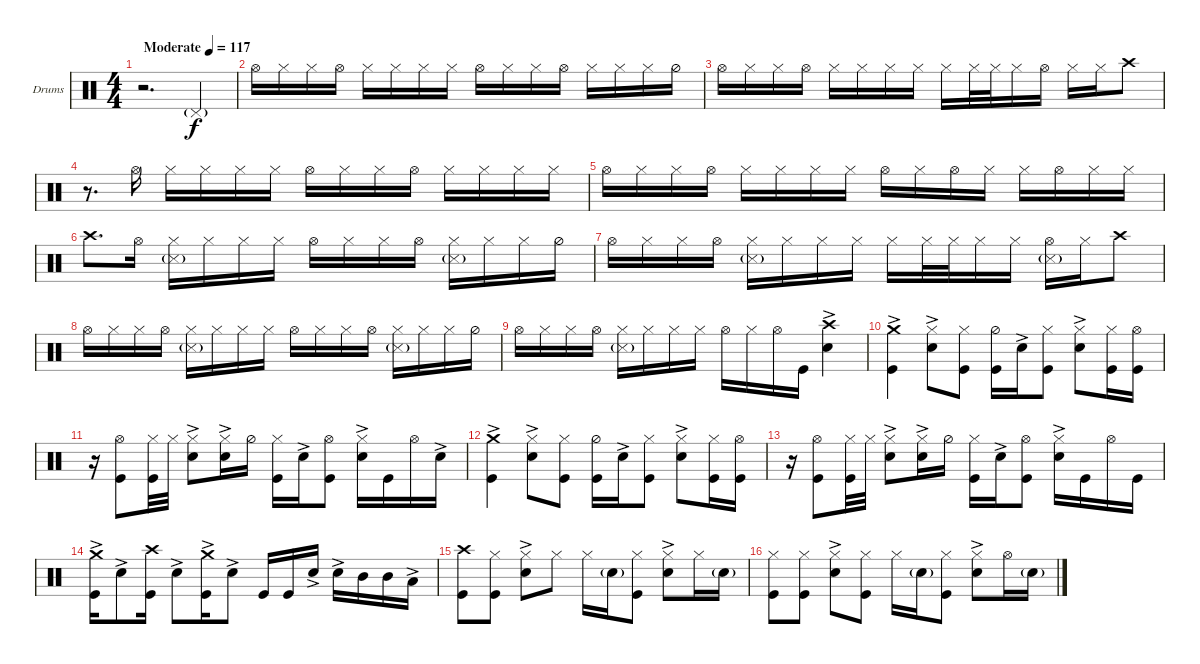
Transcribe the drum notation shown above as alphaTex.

\bracketExtendMode groupsimilarinstruments
\firstSystemTrackNameOrientation horizontal
\otherSystemsTrackNameOrientation horizontal
\track ("Drumkit" "Drums") {instrument percussion}
\staff {score}
\articulation defaults
\ts (4 4)
\beaming (8 2 2 2 2)
\tempo (117 "Moderate")
\clef neutral
\ks c
r.2{d dy f} "Pedal Hi-Hat (hit)"{g}.4 |
"Hi-Hat (open)".16 "Hi-Hat (closed)".16 "Hi-Hat (closed)".16 "Hi-Hat (open)".16 "Hi-Hat (closed)".16 "Hi-Hat (closed)".16 "Hi-Hat (closed)".16 "Hi-Hat (closed)".16 "Hi-Hat (open)".16 "Hi-Hat (closed)".16 "Hi-Hat (closed)".16 "Hi-Hat (open)".16 "Hi-Hat (closed)".16 "Hi-Hat (closed)".16 "Hi-Hat (closed)".16 "Hi-Hat (half)".16 |
"Hi-Hat (open)".16 "Hi-Hat (closed)".16 "Hi-Hat (closed)".16 "Hi-Hat (open)".16 "Hi-Hat (closed)".16 "Hi-Hat (closed)".16 "Hi-Hat (closed)".16 "Hi-Hat (closed)".16 "Hi-Hat (closed)".16 "Hi-Hat (closed)".32 "Hi-Hat (closed)".32 "Hi-Hat (closed)".16 "Hi-Hat (open)".16 "Hi-Hat (closed)".16 "Hi-Hat (closed)".16 "Crash high (hit)".8 |
r.8{d} "Hi-Hat (open)".16 "Hi-Hat (closed)".16 "Hi-Hat (closed)".16 "Hi-Hat (closed)".16 "Hi-Hat (closed)".16 "Hi-Hat (open)".16 "Hi-Hat (closed)".16 "Hi-Hat (closed)".16 "Hi-Hat (open)".16 "Hi-Hat (closed)".16 "Hi-Hat (closed)".16 "Hi-Hat (closed)".16 "Hi-Hat (closed)".16 |
"Hi-Hat (open)".16 "Hi-Hat (closed)".16 "Hi-Hat (closed)".16 "Hi-Hat (open)".16 "Hi-Hat (closed)".16 "Hi-Hat (closed)".16 "Hi-Hat (closed)".16 "Hi-Hat (closed)".16 "Hi-Hat (open)".16 "Hi-Hat (closed)".16 "Hi-Hat (open)".16 "Hi-Hat (closed)".16 "Hi-Hat (closed)".16 "Hi-Hat (open)".16 "Hi-Hat (closed)".16 "Hi-Hat (closed)".16 |
"Crash high (hit)".8{d} "Hi-Hat (open)".16 ("Hi-Hat (closed)" "Snare (side stick) 3"{g}).16 "Hi-Hat (closed)".16 "Hi-Hat (closed)".16 "Hi-Hat (closed)".16 "Hi-Hat (open)".16 "Hi-Hat (closed)".16 "Hi-Hat (closed)".16 "Hi-Hat (open)".16 ("Hi-Hat (closed)" "Snare (side stick) 3"{g}).16 "Hi-Hat (closed)".16 "Hi-Hat (closed)".16 "Hi-Hat (half)".16 |
"Hi-Hat (open)".16 "Hi-Hat (closed)".16 "Hi-Hat (closed)".16 "Hi-Hat (open)".16 ("Hi-Hat (closed)" "Snare (side stick) 3"{g}).16 "Hi-Hat (closed)".16 "Hi-Hat (closed)".16 "Hi-Hat (closed)".16 "Hi-Hat (closed)".16 "Hi-Hat (closed)".32 "Hi-Hat (closed)".32 "Hi-Hat (closed)".16 "Hi-Hat (closed)".16 ("Hi-Hat (open)" "Snare (side stick) 3"{g}).16 "Hi-Hat (closed)".16 "Crash high (hit)".8 |
"Hi-Hat (open)".16 "Hi-Hat (closed)".16 "Hi-Hat (closed)".16 "Hi-Hat (open)".16 ("Hi-Hat (closed)" "Snare (side stick) 3"{g}).16 "Hi-Hat (closed)".16 "Hi-Hat (closed)".16 "Hi-Hat (closed)".16 "Hi-Hat (open)".16 "Hi-Hat (closed)".16 "Hi-Hat (closed)".16 "Hi-Hat (open)".16 ("Hi-Hat (closed)" "Snare (side stick) 3"{g}).16 "Hi-Hat (closed)".16 "Hi-Hat (closed)".16 "Hi-Hat (half)".16 |
"Hi-Hat (open)".16 "Hi-Hat (closed)".16 "Hi-Hat (closed)".16 "Hi-Hat (open)".16 ("Hi-Hat (closed)" "Snare (side stick) 3"{g}).16 "Hi-Hat (closed)".16 "Hi-Hat (closed)".16 "Hi-Hat (closed)".16 "Hi-Hat (open)".16 "Hi-Hat (closed)".16 "Hi-Hat (open)".16 "Kick (hit)".16 ("Snare (hit) 2"{ac} "Crash high (hit)").4 |
("Kick (hit)" "Crash medium (hit)"{ac}).4 ("Hi-Hat (closed)" "Snare (hit) 2"{ac}).8 ("Hi-Hat (closed)" "Kick (hit)").8 ("Kick (hit)" "Hi-Hat (half)").16 "Snare (hit) 2"{ac}.16 ("Kick (hit)" "Hi-Hat (closed)").8 ("Snare (hit) 2"{ac} "Hi-Hat (closed)").8 ("Kick (hit)" "Hi-Hat (closed)").16 ("Hi-Hat (open)" "Kick (hit)").16 |
r.16 ("Hi-Hat (open)" "Kick (hit)").8 ("Kick (hit)" "Hi-Hat (closed)").32 "Hi-Hat (closed)".32 ("Snare (hit) 2"{ac} "Hi-Hat (closed)").8 ("Snare (hit) 2"{ac} "Hi-Hat (closed)").16 "Hi-Hat (half)".16 ("Kick (hit)" "Hi-Hat (closed)").16 "Snare (hit) 2"{ac}.16 ("Kick (hit)" "Hi-Hat (open)").8 ("Snare (hit) 2"{ac} "Hi-Hat (closed)").16 "Kick (hit)".16 "Hi-Hat (open)".16 "Snare (hit) 2"{ac}.16 |
("Kick (hit)" "Crash medium (hit)"{ac}).4 ("Hi-Hat (closed)" "Snare (hit) 2"{ac}).8 ("Hi-Hat (closed)" "Kick (hit)").8 ("Kick (hit)" "Hi-Hat (half)").16 "Snare (hit) 2"{ac}.16 ("Kick (hit)" "Hi-Hat (closed)").8 ("Snare (hit) 2"{ac} "Hi-Hat (closed)").8 ("Kick (hit)" "Hi-Hat (closed)").16 ("Hi-Hat (open)" "Kick (hit)").16 |
r.16 ("Hi-Hat (open)" "Kick (hit)").8 ("Kick (hit)" "Hi-Hat (closed)").32 "Hi-Hat (closed)".32 ("Snare (hit) 2"{ac} "Hi-Hat (closed)").8 ("Snare (hit) 2"{ac} "Hi-Hat (closed)").16 "Hi-Hat (half)".16 ("Kick (hit)" "Hi-Hat (closed)").16 "Snare (hit) 2"{ac}.16 ("Kick (hit)" "Hi-Hat (open)").8 ("Snare (hit) 2"{ac} "Hi-Hat (closed)").16 "Kick (hit)".16 "Hi-Hat (open)".16 "Kick (hit)".16 |
("Kick (hit)" "Crash medium (hit)"{ac}).16 "Snare (hit) 2"{ac}.8 ("Kick (hit)" "Crash high (hit)").16 "Snare (hit) 2"{ac}.8 ("Kick (hit)" "Crash medium (hit)"{ac}).16 "Snare (hit) 2"{ac}.8 "Kick (hit)".16 "Kick (hit)".16 "Snare (hit) 2"{ac}.16 "Snare (hit) 2"{ac}.16 "Mid Tom (hit)".16 "Mid Tom (hit)".16 "Low Tom (hit)"{ac}.16 |
("Crash high (hit)" "Kick (hit)").8 ("Hi-Hat (closed)" "Kick (hit)").8 ("Hi-Hat (closed)" "Snare (hit) 2"{ac}).8 "Hi-Hat (closed)".8 "Hi-Hat (closed)".16 "Snare (hit) 2"{g}.16 ("Hi-Hat (closed)" "Kick (hit)").8 ("Hi-Hat (closed)" "Snare (hit) 2"{ac}).8 "Hi-Hat (closed)".16 "Snare (hit) 2"{g}.16 |
("Hi-Hat (closed)" "Kick (hit)").8 ("Hi-Hat (closed)" "Kick (hit)").8 ("Hi-Hat (closed)" "Snare (hit) 2"{ac}).8 ("Hi-Hat (closed)" "Kick (hit)").8 "Hi-Hat (closed)".16 "Snare (hit) 2"{g}.16 ("Hi-Hat (closed)" "Kick (hit)").8 ("Hi-Hat (closed)" "Snare (hit) 2"{ac}).8 "Hi-Hat (open)".16 "Snare (hit) 2"{g}.16
